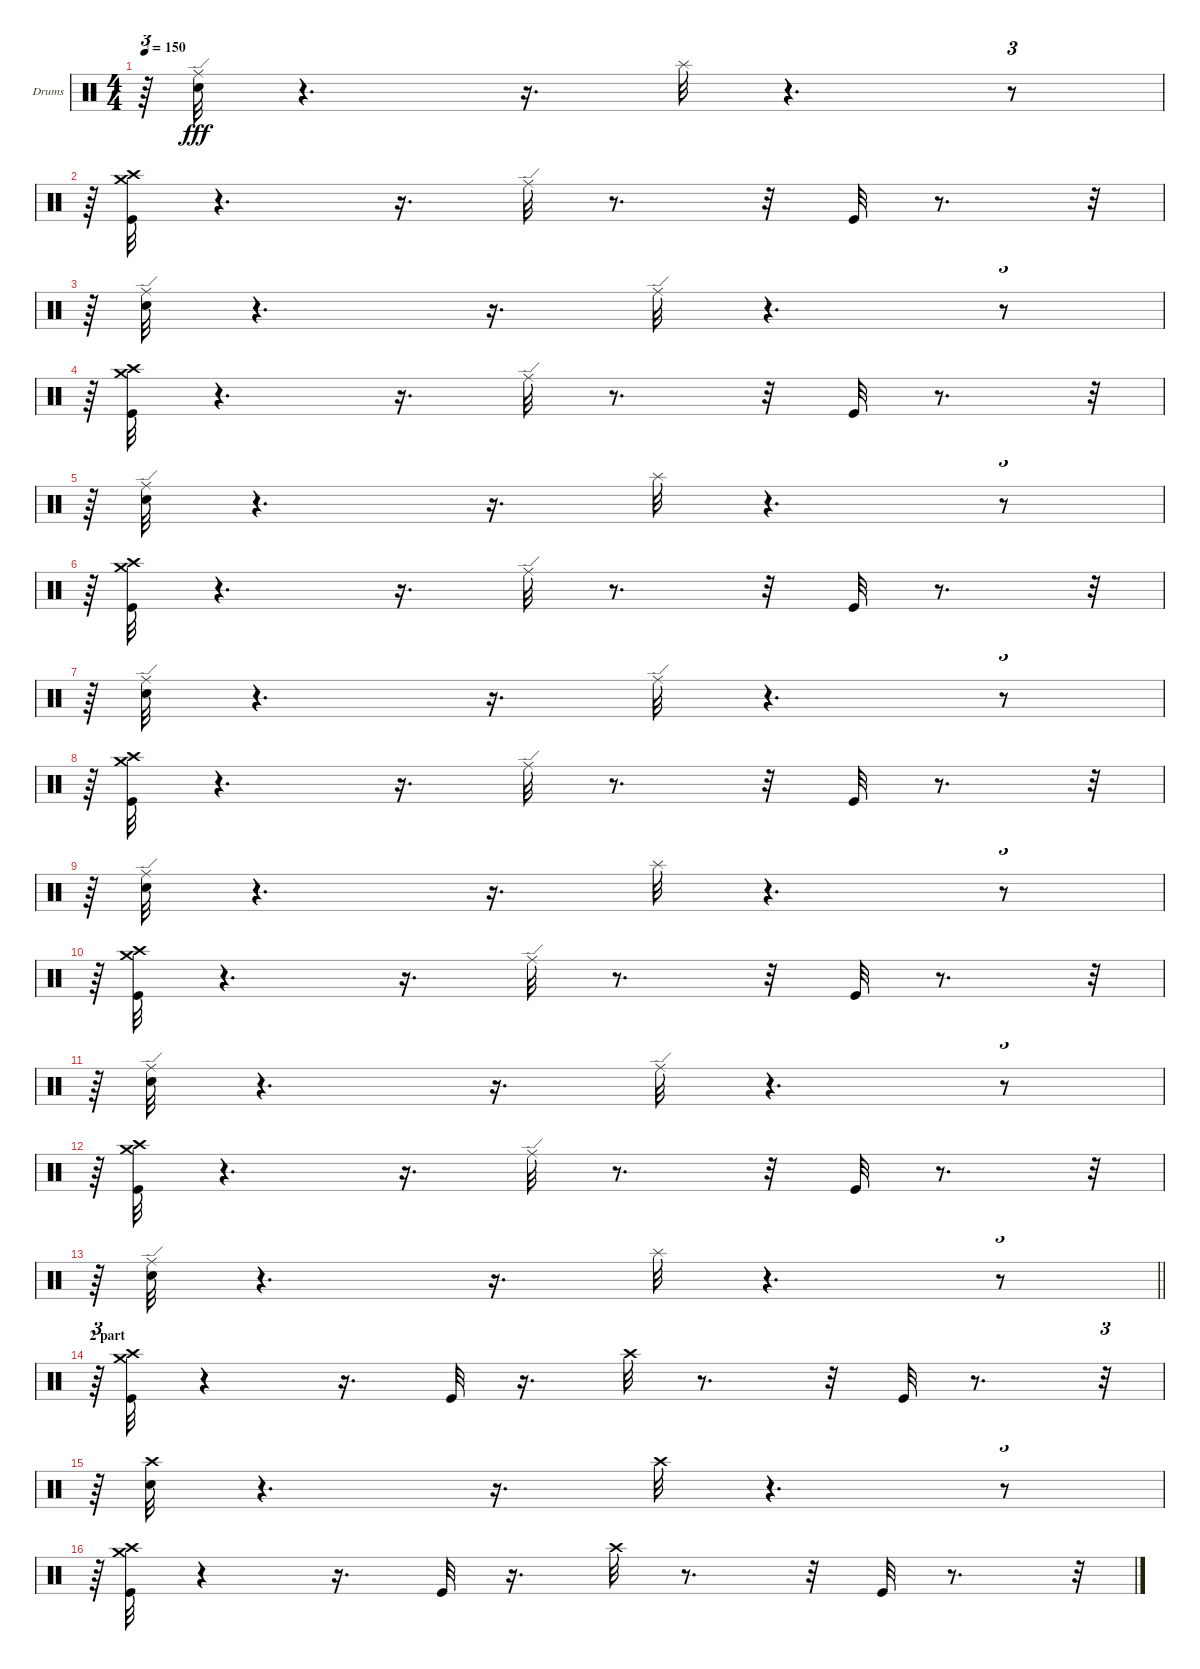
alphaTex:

\bracketExtendMode groupsimilarinstruments
\firstSystemTrackNameOrientation horizontal
\otherSystemsTrackNameOrientation horizontal
\track ("Dave McClain" "Drums") {mute instrument percussion}
\staff {score}
\articulation defaults
\ts (4 4)
\tempo 150
\clef neutral
\ks c
r.64{tu (3 2) dy fff} ("Snare (hit) 2" "Ride (edge)").32 r.4{d} r.16{d} "Splash (hit)".32 r.4{d} r.8{tu (3 2)} |
r.64{tu (3 2)} ("Crash high (hit)" "Crash medium (hit)" "Kick (hit)").32 r.4{d} r.16{d} "Ride (edge)".32 r.8{d} r.32 "Kick (hit)".32 r.8{d} r.32{tu (3 2)} |
r.64{tu (3 2)} ("Ride (edge)" "Snare (hit) 2").32 r.4{d} r.16{d} "Ride (edge)".32 r.4{d} r.8{tu (3 2)} |
r.64{tu (3 2)} ("Crash medium (hit)" "Crash high (hit)" "Kick (hit)").32 r.4{d} r.16{d} "Ride (edge)".32 r.8{d} r.32 "Kick (hit)".32 r.8{d} r.32{tu (3 2)} |
r.64{tu (3 2)} ("Snare (hit) 2" "Ride (edge)").32 r.4{d} r.16{d} "Splash (hit)".32 r.4{d} r.8{tu (3 2)} |
r.64{tu (3 2)} ("Crash high (hit)" "Crash medium (hit)" "Kick (hit)").32 r.4{d} r.16{d} "Ride (edge)".32 r.8{d} r.32 "Kick (hit)".32 r.8{d} r.32{tu (3 2)} |
r.64{tu (3 2)} ("Ride (edge)" "Snare (hit) 2").32 r.4{d} r.16{d} "Ride (edge)".32 r.4{d} r.8{tu (3 2)} |
r.64{tu (3 2)} ("Crash medium (hit)" "Crash high (hit)" "Kick (hit)").32 r.4{d} r.16{d} "Ride (edge)".32 r.8{d} r.32 "Kick (hit)".32 r.8{d} r.32{tu (3 2)} |
r.64{tu (3 2)} ("Snare (hit) 2" "Ride (edge)").32 r.4{d} r.16{d} "Splash (hit)".32 r.4{d} r.8{tu (3 2)} |
r.64{tu (3 2)} ("Crash high (hit)" "Crash medium (hit)" "Kick (hit)").32 r.4{d} r.16{d} "Ride (edge)".32 r.8{d} r.32 "Kick (hit)".32 r.8{d} r.32{tu (3 2)} |
r.64{tu (3 2)} ("Ride (edge)" "Snare (hit) 2").32 r.4{d} r.16{d} "Ride (edge)".32 r.4{d} r.8{tu (3 2)} |
r.64{tu (3 2)} ("Crash medium (hit)" "Crash high (hit)" "Kick (hit)").32 r.4{d} r.16{d} "Ride (edge)".32 r.8{d} r.32 "Kick (hit)".32 r.8{d} r.32{tu (3 2)} |
\barLineRight lightlight
r.64{tu (3 2)} ("Snare (hit) 2" "Ride (edge)").32 r.4{d} r.16{d} "Splash (hit)".32 r.4{d} r.8{tu (3 2)} |
\section ("" "2 part")
r.64{tu (3 2)} ("Crash high (hit)" "Crash medium (hit)" "Kick (hit)").32 r.4 r.16{d} "Kick (hit)".32 r.16{d} "Crash high (hit)".32 r.8{d} r.32 "Kick (hit)".32 r.8{d} r.32{tu (3 2)} |
r.64{tu (3 2)} ("Crash high (hit)" "Snare (hit) 2").32 r.4{d} r.16{d} "Crash high (hit)".32 r.4{d} r.8{tu (3 2)} |
r.64{tu (3 2)} ("Crash medium (hit)" "Crash high (hit)" "Kick (hit)").32 r.4 r.16{d} "Kick (hit)".32 r.16{d} "Crash high (hit)".32 r.8{d} r.32 "Kick (hit)".32 r.8{d} r.32{tu (3 2)}
